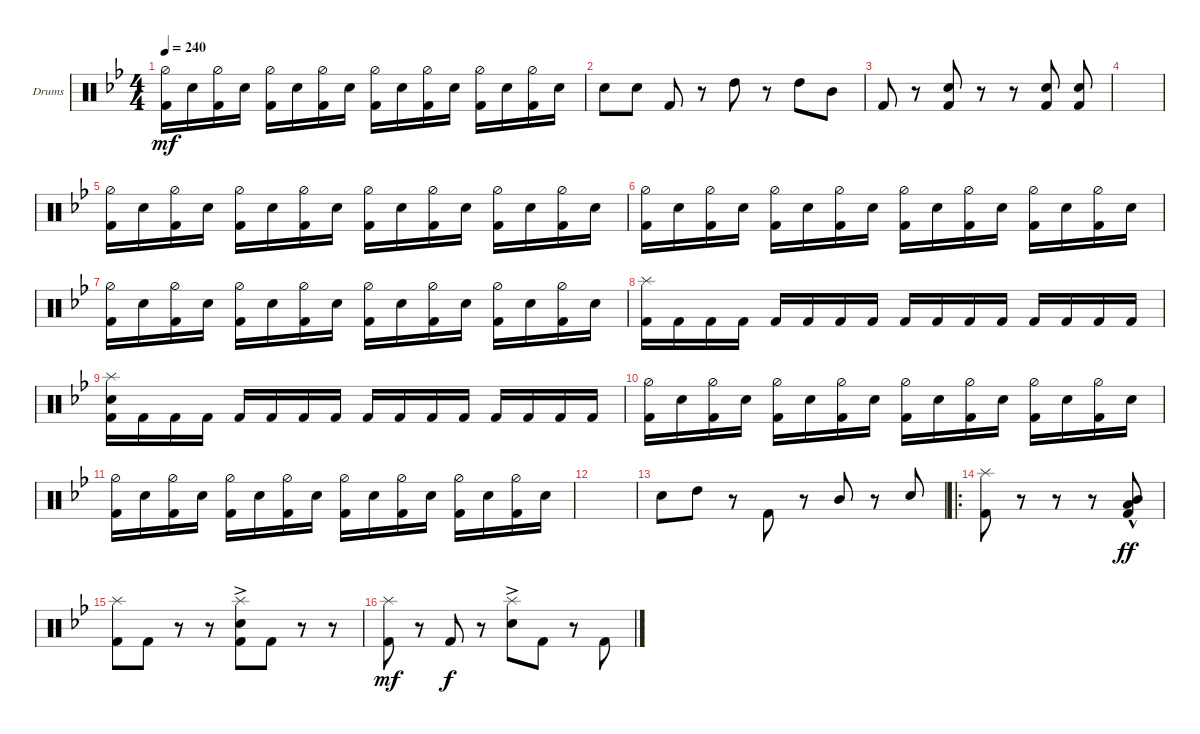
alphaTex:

\defaultSystemsLayout 4
\bracketExtendMode groupsimilarinstruments
\firstSystemTrackNameOrientation horizontal
\otherSystemsTrackNameOrientation horizontal
\track ("Drumkit" "Drums") {instrument percussion}
\staff {score}
\articulation defaults
\ts (4 4)
\tempo 240
\clef neutral
\ks bb
("Hi-Hat (half)"{acc forcenatural} "Kick (hit) 2"{acc forcenatural}).16{dy mf beam Down} "Snare (hit) 2"{acc forcenatural}.16{beam Down} ("Hi-Hat (half)"{acc forcenatural} "Kick (hit) 2"{acc forcenatural}).16{beam Down} "Snare (hit) 2"{acc forcenatural}.16{beam Down} ("Hi-Hat (half)"{acc forcenatural} "Kick (hit) 2"{acc forcenatural}).16{beam Down} "Snare (hit) 2"{acc forcenatural}.16{beam Down} ("Hi-Hat (half)"{acc forcenatural} "Kick (hit) 2"{acc forcenatural}).16{beam Down} "Snare (hit) 2"{acc forcenatural}.16{beam Down} ("Hi-Hat (half)"{acc forcenatural} "Kick (hit) 2"{acc forcenatural}).16{beam Down} "Snare (hit) 2"{acc forcenatural}.16{beam Down} ("Hi-Hat (half)"{acc forcenatural} "Kick (hit) 2"{acc forcenatural}).16{beam Down} "Snare (hit) 2"{acc forcenatural}.16{beam Down} ("Hi-Hat (half)"{acc forcenatural} "Kick (hit) 2"{acc forcenatural}).16{beam Down} "Snare (hit) 2"{acc forcenatural}.16{beam Down} ("Hi-Hat (half)"{acc forcenatural} "Kick (hit) 2"{acc forcenatural}).16{beam Down} "Snare (hit) 2"{acc forcenatural}.16{beam Down} |
"Snare (hit) 2"{acc forcenatural}.8{beam Down} "Snare (hit) 2"{acc forcenatural}.8{beam Down} "Kick (hit) 2"{acc forcenatural}.8{beam Up} r.8{beam Up} "High Tom (hit)"{acc forcenatural}.8{beam Down} r.8{beam Down} "High Tom (hit)"{acc forcenatural}.8{beam Down} "Mid Tom (hit)"{acc forcenatural}.8{beam Down} |
"Kick (hit) 2"{acc forcenatural}.8{beam Up} r.8{beam Up} ("Snare (hit) 2"{acc forcenatural} "Kick (hit) 2"{acc forcenatural}).8{beam Up} r.8{beam Up} r.8{beam Up} ("Kick (hit) 2"{acc forcenatural} "Snare (hit) 2"{acc forcenatural}).8{beam Up} ("Kick (hit) 2"{acc forcenatural} "Snare (hit) 2"{acc forcenatural}).8{beam Up} |
|
("Hi-Hat (half)"{acc forcenatural} "Kick (hit) 2"{acc forcenatural}).16{beam Down} "Snare (hit) 2"{acc forcenatural}.16{beam Down} ("Hi-Hat (half)"{acc forcenatural} "Kick (hit) 2"{acc forcenatural}).16{beam Down} "Snare (hit) 2"{acc forcenatural}.16{beam Down} ("Hi-Hat (half)"{acc forcenatural} "Kick (hit) 2"{acc forcenatural}).16{beam Down} "Snare (hit) 2"{acc forcenatural}.16{beam Down} ("Hi-Hat (half)"{acc forcenatural} "Kick (hit) 2"{acc forcenatural}).16{beam Down} "Snare (hit) 2"{acc forcenatural}.16{beam Down} ("Hi-Hat (half)"{acc forcenatural} "Kick (hit) 2"{acc forcenatural}).16{beam Down} "Snare (hit) 2"{acc forcenatural}.16{beam Down} ("Hi-Hat (half)"{acc forcenatural} "Kick (hit) 2"{acc forcenatural}).16{beam Down} "Snare (hit) 2"{acc forcenatural}.16{beam Down} ("Hi-Hat (half)"{acc forcenatural} "Kick (hit) 2"{acc forcenatural}).16{beam Down} "Snare (hit) 2"{acc forcenatural}.16{beam Down} ("Hi-Hat (half)"{acc forcenatural} "Kick (hit) 2"{acc forcenatural}).16{beam Down} "Snare (hit) 2"{acc forcenatural}.16{beam Down} |
("Hi-Hat (half)"{acc forcenatural} "Kick (hit) 2"{acc forcenatural}).16{beam Down} "Snare (hit) 2"{acc forcenatural}.16{beam Down} ("Hi-Hat (half)"{acc forcenatural} "Kick (hit) 2"{acc forcenatural}).16{beam Down} "Snare (hit) 2"{acc forcenatural}.16{beam Down} ("Hi-Hat (half)"{acc forcenatural} "Kick (hit) 2"{acc forcenatural}).16{beam Down} "Snare (hit) 2"{acc forcenatural}.16{beam Down} ("Hi-Hat (half)"{acc forcenatural} "Kick (hit) 2"{acc forcenatural}).16{beam Down} "Snare (hit) 2"{acc forcenatural}.16{beam Down} ("Hi-Hat (half)"{acc forcenatural} "Kick (hit) 2"{acc forcenatural}).16{beam Down} "Snare (hit) 2"{acc forcenatural}.16{beam Down} ("Hi-Hat (half)"{acc forcenatural} "Kick (hit) 2"{acc forcenatural}).16{beam Down} "Snare (hit) 2"{acc forcenatural}.16{beam Down} ("Hi-Hat (half)"{acc forcenatural} "Kick (hit) 2"{acc forcenatural}).16{beam Down} "Snare (hit) 2"{acc forcenatural}.16{beam Down} ("Hi-Hat (half)"{acc forcenatural} "Kick (hit) 2"{acc forcenatural}).16{beam Down} "Snare (hit) 2"{acc forcenatural}.16{beam Down} |
("Hi-Hat (half)"{acc forcenatural} "Kick (hit) 2"{acc forcenatural}).16{beam Down} "Snare (hit) 2"{acc forcenatural}.16{beam Down} ("Hi-Hat (half)"{acc forcenatural} "Kick (hit) 2"{acc forcenatural}).16{beam Down} "Snare (hit) 2"{acc forcenatural}.16{beam Down} ("Hi-Hat (half)"{acc forcenatural} "Kick (hit) 2"{acc forcenatural}).16{beam Down} "Snare (hit) 2"{acc forcenatural}.16{beam Down} ("Hi-Hat (half)"{acc forcenatural} "Kick (hit) 2"{acc forcenatural}).16{beam Down} "Snare (hit) 2"{acc forcenatural}.16{beam Down} ("Hi-Hat (half)"{acc forcenatural} "Kick (hit) 2"{acc forcenatural}).16{beam Down} "Snare (hit) 2"{acc forcenatural}.16{beam Down} ("Hi-Hat (half)"{acc forcenatural} "Kick (hit) 2"{acc forcenatural}).16{beam Down} "Snare (hit) 2"{acc forcenatural}.16{beam Down} ("Hi-Hat (half)"{acc forcenatural} "Kick (hit) 2"{acc forcenatural}).16{beam Down} "Snare (hit) 2"{acc forcenatural}.16{beam Down} ("Hi-Hat (half)"{acc forcenatural} "Kick (hit) 2"{acc forcenatural}).16{beam Down} "Snare (hit) 2"{acc forcenatural}.16{beam Down} |
("Kick (hit) 2"{acc forcenatural} "Splash (hit)"{acc forcenatural}).16{beam Down} "Kick (hit) 2"{acc forcenatural}.16{beam Down} "Kick (hit) 2"{acc forcenatural}.16{beam Down} "Kick (hit) 2"{acc forcenatural}.16{beam Down} "Kick (hit) 2"{acc forcenatural}.16{beam Up} "Kick (hit) 2"{acc forcenatural}.16{beam Up} "Kick (hit) 2"{acc forcenatural}.16{beam Up} "Kick (hit) 2"{acc forcenatural}.16{beam Up} "Kick (hit) 2"{acc forcenatural}.16{beam Up} "Kick (hit) 2"{acc forcenatural}.16{beam Up} "Kick (hit) 2"{acc forcenatural}.16{beam Up} "Kick (hit) 2"{acc forcenatural}.16{beam Up} "Kick (hit) 2"{acc forcenatural}.16{beam Up} "Kick (hit) 2"{acc forcenatural}.16{beam Up} "Kick (hit) 2"{acc forcenatural}.16{beam Up} "Kick (hit) 2"{acc forcenatural}.16{beam Up} |
("Kick (hit) 2"{acc forcenatural} "Splash (hit)"{acc forcenatural} "Snare (hit) 2"{acc forcenatural}).16{beam Down} "Kick (hit) 2"{acc forcenatural}.16{beam Down} "Kick (hit) 2"{acc forcenatural}.16{beam Down} "Kick (hit) 2"{acc forcenatural}.16{beam Down} "Kick (hit) 2"{acc forcenatural}.16{beam Up} "Kick (hit) 2"{acc forcenatural}.16{beam Up} "Kick (hit) 2"{acc forcenatural}.16{beam Up} "Kick (hit) 2"{acc forcenatural}.16{beam Up} "Kick (hit) 2"{acc forcenatural}.16{beam Up} "Kick (hit) 2"{acc forcenatural}.16{beam Up} "Kick (hit) 2"{acc forcenatural}.16{beam Up} "Kick (hit) 2"{acc forcenatural}.16{beam Up} "Kick (hit) 2"{acc forcenatural}.16{beam Up} "Kick (hit) 2"{acc forcenatural}.16{beam Up} "Kick (hit) 2"{acc forcenatural}.16{beam Up} "Kick (hit) 2"{acc forcenatural}.16{beam Up} |
("Hi-Hat (half)"{acc forcenatural} "Kick (hit) 2"{acc forcenatural}).16{beam Down} "Snare (hit) 2"{acc forcenatural}.16{beam Down} ("Hi-Hat (half)"{acc forcenatural} "Kick (hit) 2"{acc forcenatural}).16{beam Down} "Snare (hit) 2"{acc forcenatural}.16{beam Down} ("Hi-Hat (half)"{acc forcenatural} "Kick (hit) 2"{acc forcenatural}).16{beam Down} "Snare (hit) 2"{acc forcenatural}.16{beam Down} ("Hi-Hat (half)"{acc forcenatural} "Kick (hit) 2"{acc forcenatural}).16{beam Down} "Snare (hit) 2"{acc forcenatural}.16{beam Down} ("Hi-Hat (half)"{acc forcenatural} "Kick (hit) 2"{acc forcenatural}).16{beam Down} "Snare (hit) 2"{acc forcenatural}.16{beam Down} ("Hi-Hat (half)"{acc forcenatural} "Kick (hit) 2"{acc forcenatural}).16{beam Down} "Snare (hit) 2"{acc forcenatural}.16{beam Down} ("Hi-Hat (half)"{acc forcenatural} "Kick (hit) 2"{acc forcenatural}).16{beam Down} "Snare (hit) 2"{acc forcenatural}.16{beam Down} ("Hi-Hat (half)"{acc forcenatural} "Kick (hit) 2"{acc forcenatural}).16{beam Down} "Snare (hit) 2"{acc forcenatural}.16{beam Down} |
("Hi-Hat (half)"{acc forcenatural} "Kick (hit) 2"{acc forcenatural}).16{beam Down} "Snare (hit) 2"{acc forcenatural}.16{beam Down} ("Hi-Hat (half)"{acc forcenatural} "Kick (hit) 2"{acc forcenatural}).16{beam Down} "Snare (hit) 2"{acc forcenatural}.16{beam Down} ("Hi-Hat (half)"{acc forcenatural} "Kick (hit) 2"{acc forcenatural}).16{beam Down} "Snare (hit) 2"{acc forcenatural}.16{beam Down} ("Hi-Hat (half)"{acc forcenatural} "Kick (hit) 2"{acc forcenatural}).16{beam Down} "Snare (hit) 2"{acc forcenatural}.16{beam Down} ("Hi-Hat (half)"{acc forcenatural} "Kick (hit) 2"{acc forcenatural}).16{beam Down} "Snare (hit) 2"{acc forcenatural}.16{beam Down} ("Hi-Hat (half)"{acc forcenatural} "Kick (hit) 2"{acc forcenatural}).16{beam Down} "Snare (hit) 2"{acc forcenatural}.16{beam Down} ("Hi-Hat (half)"{acc forcenatural} "Kick (hit) 2"{acc forcenatural}).16{beam Down} "Snare (hit) 2"{acc forcenatural}.16{beam Down} ("Hi-Hat (half)"{acc forcenatural} "Kick (hit) 2"{acc forcenatural}).16{beam Down} "Snare (hit) 2"{acc forcenatural}.16{beam Down} |
|
"Snare (hit) 2"{acc forcenatural}.8{beam Down} "High Tom (hit)"{acc forcenatural}.8{beam Down} r.8{beam Down} "Kick (hit) 2"{acc forcenatural}.8{beam Up} r.8{beam Up} "Mid Tom (hit)"{acc forcenatural}.8{beam Up} r.8{beam Up} "Snare (hit) 2"{acc forcenatural}.8{beam Down} |
\ro
("Kick (hit) 2"{acc forcenatural} "Splash (hit)"{acc forcenatural}).8{beam Down} r.8{beam Down} r.8{beam Down} r.8{beam Down} ("Kick (hit) 2"{hac acc forcenatural} "Low Tom (hit)"{hac acc forcenatural} "Mid Tom (hit)"{hac acc forcenatural}).8{dy ff beam Up} |
("Kick (hit) 2"{acc forcenatural} "Splash (hit)"{acc forcenatural}).8{beam Down} "Kick (hit) 2"{acc forcenatural}.8{beam Down} r.8{beam Down} r.8{beam Down} ("Kick (hit) 2"{acc forcenatural} "Splash (hit)"{acc forcenatural} "Snare (hit) 2"{ac acc forcenatural}).8{beam Down} "Kick (hit) 2"{acc forcenatural}.8{beam Down} r.8{beam Down} r.8{beam Down} |
("Kick (hit) 2"{acc forcenatural} "Splash (hit)"{acc forcenatural}).8{dy mf beam Down} r.8{beam Down} "Kick (hit) 2"{acc forcenatural}.8{dy f beam Up} r.8{beam Up} ("Splash (hit)"{acc forcenatural} "Snare (hit) 2"{ac acc forcenatural}).8{beam Down} "Kick (hit) 2"{acc forcenatural}.8{beam Down} r.8{beam Down} "Kick (hit) 2"{acc forcenatural}.8{beam Up}
